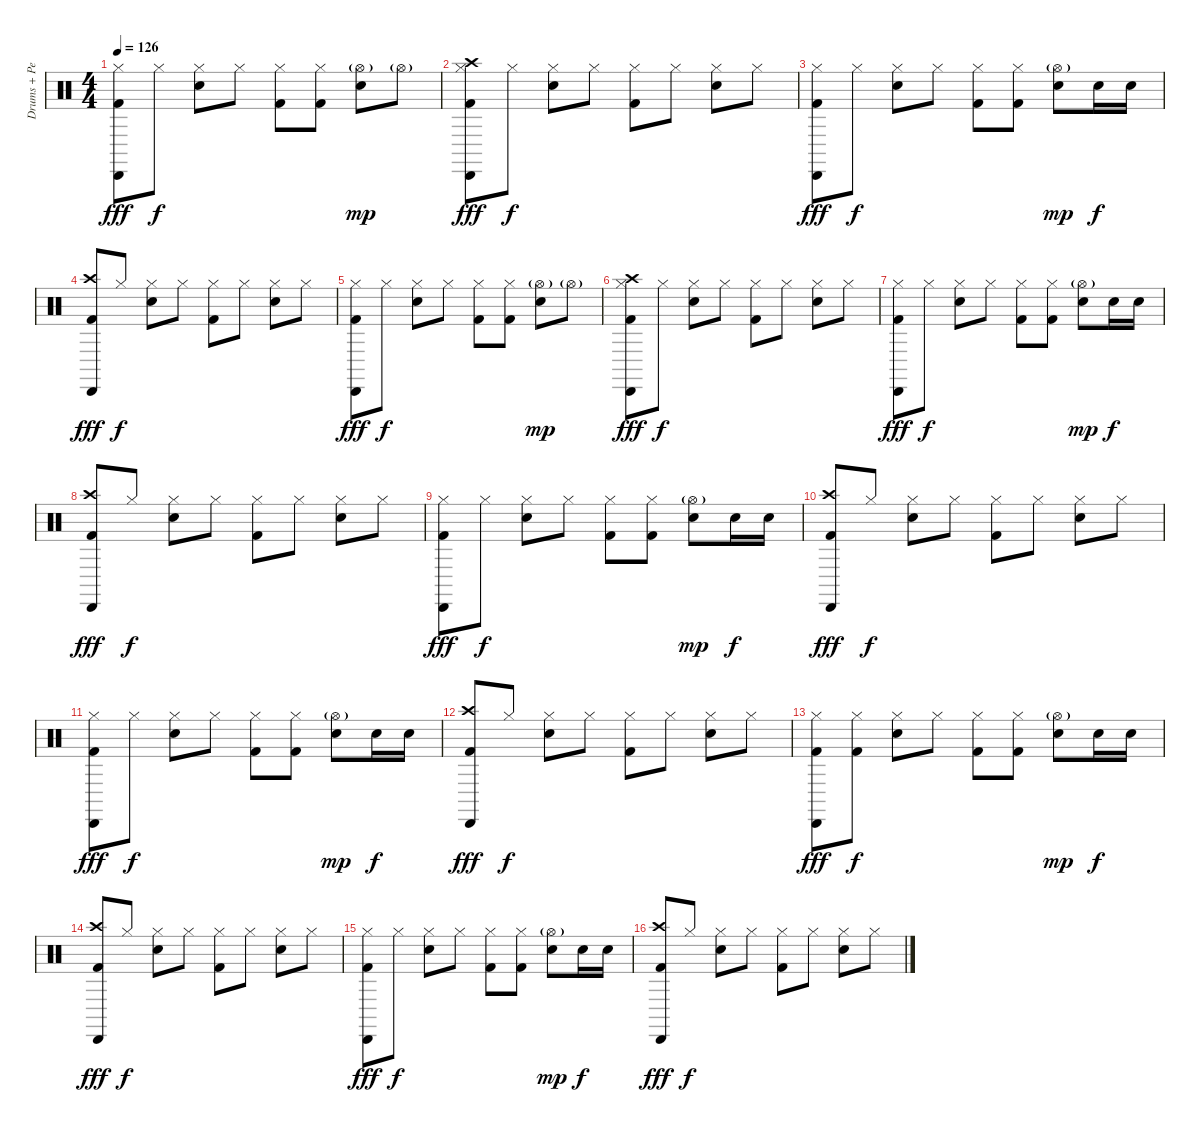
\track ("Drums + Percussions" "Drums + Pe") {instrument percussion}
\staff {score}
\articulation defaults
\ts (4 4)
\tempo 126
\clef neutral
\ks c
("Hi-Hat (closed)" "Cabasa (hit)" "Kick (hit) 2").8{dy fff} "Hi-Hat (closed)".8{dy f} ("Hi-Hat (closed)" "Electric Snare (hit)").8 "Hi-Hat (closed)".8 ("Hi-Hat (closed)" "Kick (hit) 2").8 ("Hi-Hat (closed)" "Kick (hit) 2").8 ("Hi-Hat (open)"{g} "Electric Snare (hit)").8{dy mp} "Hi-Hat (open)"{g}.8 |
("Crash high (hit)" "Hi-Hat (closed)" "Cabasa (hit)" "Kick (hit) 2").8{dy fff} "Hi-Hat (closed)".8{dy f} ("Hi-Hat (closed)" "Electric Snare (hit)").8 "Hi-Hat (closed)".8 ("Hi-Hat (closed)" "Kick (hit) 2").8 "Hi-Hat (closed)".8 ("Hi-Hat (closed)" "Electric Snare (hit)").8 "Hi-Hat (closed)".8 |
("Hi-Hat (closed)" "Cabasa (hit)" "Kick (hit) 2").8{dy fff} "Hi-Hat (closed)".8{dy f} ("Hi-Hat (closed)" "Electric Snare (hit)").8 "Hi-Hat (closed)".8 ("Hi-Hat (closed)" "Kick (hit) 2").8 ("Hi-Hat (closed)" "Kick (hit) 2").8 ("Hi-Hat (open)"{g} "Electric Snare (hit)").8{dy mp} "Electric Snare (hit)".16{dy f} "Electric Snare (hit)".16 |
("Crash high (hit)" "Cabasa (hit)" "Kick (hit) 2").8{dy fff} "Hi-Hat (closed)".8{dy f} ("Hi-Hat (closed)" "Electric Snare (hit)").8 "Hi-Hat (closed)".8 ("Hi-Hat (closed)" "Kick (hit) 2").8 "Hi-Hat (closed)".8 ("Hi-Hat (closed)" "Electric Snare (hit)").8 "Hi-Hat (closed)".8 |
("Hi-Hat (closed)" "Cabasa (hit)" "Kick (hit) 2").8{dy fff} "Hi-Hat (closed)".8{dy f} ("Hi-Hat (closed)" "Electric Snare (hit)").8 "Hi-Hat (closed)".8 ("Hi-Hat (closed)" "Kick (hit) 2").8 ("Hi-Hat (closed)" "Kick (hit) 2").8 ("Hi-Hat (open)"{g} "Electric Snare (hit)").8{dy mp} "Hi-Hat (open)"{g}.8 |
("Hi-Hat (closed)" "Crash high (hit)" "Cabasa (hit)" "Kick (hit) 2").8{dy fff} "Hi-Hat (closed)".8{dy f} ("Hi-Hat (closed)" "Electric Snare (hit)").8 "Hi-Hat (closed)".8 ("Hi-Hat (closed)" "Kick (hit) 2").8 "Hi-Hat (closed)".8 ("Hi-Hat (closed)" "Electric Snare (hit)").8 "Hi-Hat (closed)".8 |
("Hi-Hat (closed)" "Cabasa (hit)" "Kick (hit) 2").8{dy fff} "Hi-Hat (closed)".8{dy f} ("Hi-Hat (closed)" "Electric Snare (hit)").8 "Hi-Hat (closed)".8 ("Hi-Hat (closed)" "Kick (hit) 2").8 ("Hi-Hat (closed)" "Kick (hit) 2").8 ("Hi-Hat (open)"{g} "Electric Snare (hit)").8{dy mp} "Electric Snare (hit)".16{dy f} "Electric Snare (hit)".16 |
("Crash high (hit)" "Cabasa (hit)" "Kick (hit) 2").8{dy fff} "Hi-Hat (closed)".8{dy f} ("Hi-Hat (closed)" "Electric Snare (hit)").8 "Hi-Hat (closed)".8 ("Hi-Hat (closed)" "Kick (hit) 2").8 "Hi-Hat (closed)".8 ("Hi-Hat (closed)" "Electric Snare (hit)").8 "Hi-Hat (closed)".8 |
("Hi-Hat (closed)" "Cabasa (hit)" "Kick (hit) 2").8{dy fff} "Hi-Hat (closed)".8{dy f} ("Hi-Hat (closed)" "Electric Snare (hit)").8 "Hi-Hat (closed)".8 ("Hi-Hat (closed)" "Kick (hit) 2").8 ("Hi-Hat (closed)" "Kick (hit) 2").8 ("Hi-Hat (open)"{g} "Electric Snare (hit)").8{dy mp} "Electric Snare (hit)".16{dy f} "Electric Snare (hit)".16 |
("Crash high (hit)" "Cabasa (hit)" "Kick (hit) 2").8{dy fff} "Hi-Hat (closed)".8{dy f} ("Hi-Hat (closed)" "Electric Snare (hit)").8 "Hi-Hat (closed)".8 ("Hi-Hat (closed)" "Kick (hit) 2").8 "Hi-Hat (closed)".8 ("Hi-Hat (closed)" "Electric Snare (hit)").8 "Hi-Hat (closed)".8 |
("Hi-Hat (closed)" "Cabasa (hit)" "Kick (hit) 2").8{dy fff} "Hi-Hat (closed)".8{dy f} ("Hi-Hat (closed)" "Electric Snare (hit)").8 "Hi-Hat (closed)".8 ("Hi-Hat (closed)" "Kick (hit) 2").8 ("Hi-Hat (closed)" "Kick (hit) 2").8 ("Hi-Hat (open)"{g} "Electric Snare (hit)").8{dy mp} "Electric Snare (hit)".16{dy f} "Electric Snare (hit)".16 |
("Crash high (hit)" "Cabasa (hit)" "Kick (hit) 2").8{dy fff} "Hi-Hat (closed)".8{dy f} ("Hi-Hat (closed)" "Electric Snare (hit)").8 "Hi-Hat (closed)".8 ("Hi-Hat (closed)" "Kick (hit) 2").8 "Hi-Hat (closed)".8 ("Hi-Hat (closed)" "Electric Snare (hit)").8 "Hi-Hat (closed)".8 |
("Hi-Hat (closed)" "Cabasa (hit)" "Kick (hit) 2").8{dy fff} ("Hi-Hat (closed)" "Kick (hit) 2").8{dy f} ("Hi-Hat (closed)" "Electric Snare (hit)").8 "Hi-Hat (closed)".8 ("Hi-Hat (closed)" "Kick (hit) 2").8 ("Hi-Hat (closed)" "Kick (hit) 2").8 ("Hi-Hat (open)"{g} "Electric Snare (hit)").8{dy mp} "Electric Snare (hit)".16{dy f} "Electric Snare (hit)".16 |
("Crash high (hit)" "Cabasa (hit)" "Kick (hit) 2").8{dy fff} "Hi-Hat (closed)".8{dy f} ("Hi-Hat (closed)" "Electric Snare (hit)").8 "Hi-Hat (closed)".8 ("Hi-Hat (closed)" "Kick (hit) 2").8 "Hi-Hat (closed)".8 ("Hi-Hat (closed)" "Electric Snare (hit)").8 "Hi-Hat (closed)".8 |
("Hi-Hat (closed)" "Cabasa (hit)" "Kick (hit) 2").8{dy fff} "Hi-Hat (closed)".8{dy f} ("Hi-Hat (closed)" "Electric Snare (hit)").8 "Hi-Hat (closed)".8 ("Hi-Hat (closed)" "Kick (hit) 2").8 ("Hi-Hat (closed)" "Kick (hit) 2").8 ("Hi-Hat (open)"{g} "Electric Snare (hit)").8{dy mp} "Electric Snare (hit)".16{dy f} "Electric Snare (hit)".16 |
("Crash high (hit)" "Cabasa (hit)" "Kick (hit) 2").8{dy fff} "Hi-Hat (closed)".8{dy f} ("Hi-Hat (closed)" "Electric Snare (hit)").8 "Hi-Hat (closed)".8 ("Hi-Hat (closed)" "Kick (hit) 2").8 "Hi-Hat (closed)".8 ("Hi-Hat (closed)" "Electric Snare (hit)").8 "Hi-Hat (closed)".8
